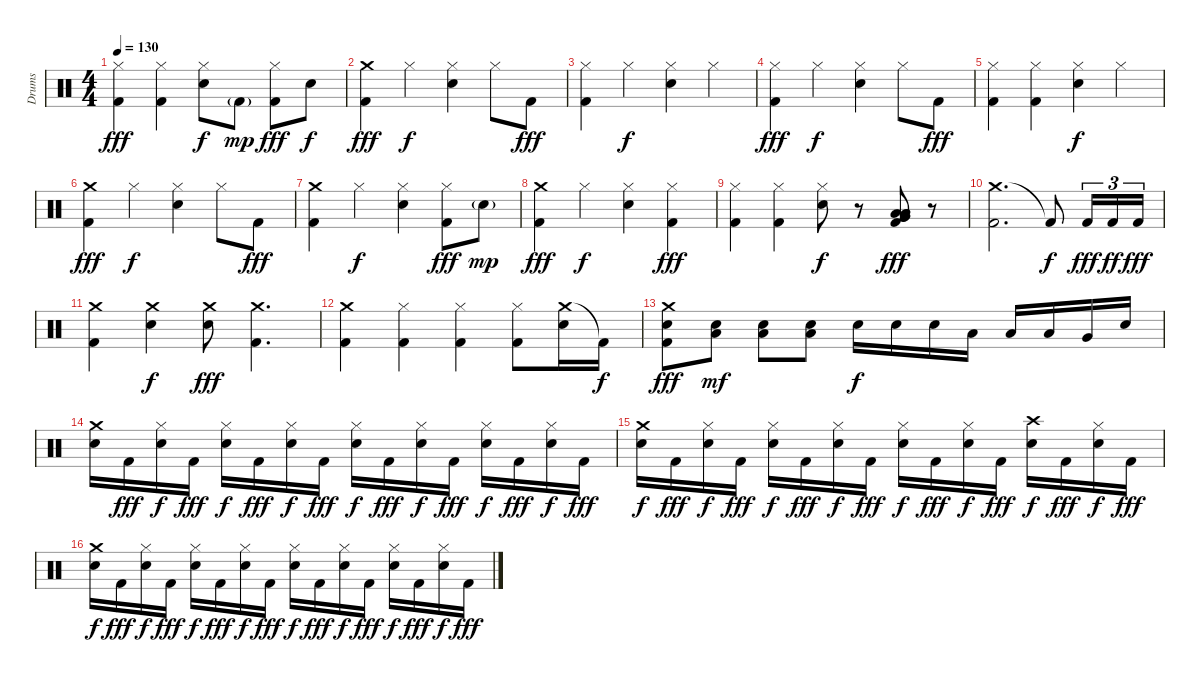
\track ("Drums" "Drums") {instrument percussion}
\staff {score}
\articulation defaults
\ts (4 4)
\tempo 130
\clef neutral
\ks c
("Hi-Hat (closed)" "Kick (hit) 2").4{dy fff} ("Hi-Hat (closed)" "Kick (hit) 2").4 ("Hi-Hat (closed)" "Electric Snare (hit)").8{dy f} "Kick (hit) 2"{g}.8{dy mp} ("Hi-Hat (closed)" "Kick (hit) 2").8{dy fff} "Electric Snare (hit)".8{dy f} |
("Crash medium (hit)" "Kick (hit) 2").4{dy fff} "Hi-Hat (closed)".4{dy f} ("Hi-Hat (closed)" "Electric Snare (hit)").4 "Hi-Hat (closed)".8 "Kick (hit) 2".8{dy fff} |
("Hi-Hat (closed)" "Kick (hit) 2").4 "Hi-Hat (closed)".4{dy f} ("Hi-Hat (closed)" "Electric Snare (hit)").4 "Hi-Hat (closed)".4 |
("Hi-Hat (closed)" "Kick (hit) 2").4{dy fff} "Hi-Hat (closed)".4{dy f} ("Hi-Hat (closed)" "Electric Snare (hit)").4 "Hi-Hat (closed)".8 "Kick (hit) 2".8{dy fff} |
("Hi-Hat (closed)" "Kick (hit) 2").4 ("Hi-Hat (closed)" "Kick (hit) 2").4 ("Hi-Hat (closed)" "Electric Snare (hit)").4{dy f} "Hi-Hat (closed)".4 |
("Crash medium (hit)" "Kick (hit) 2").4{dy fff} "Hi-Hat (closed)".4{dy f} ("Hi-Hat (closed)" "Electric Snare (hit)").4 "Hi-Hat (closed)".8 "Kick (hit) 2".8{dy fff} |
("Crash medium (hit)" "Kick (hit) 2").4 "Hi-Hat (closed)".4{dy f} ("Hi-Hat (closed)" "Electric Snare (hit)").4 ("Hi-Hat (closed)" "Kick (hit) 2").8{dy fff} "Electric Snare (hit)"{g}.8{dy mp} |
("Crash medium (hit)" "Kick (hit) 2").4{dy fff} "Hi-Hat (closed)".4{dy f} ("Hi-Hat (closed)" "Electric Snare (hit)").4 ("Hi-Hat (closed)" "Kick (hit) 2").4{dy fff} |
("Hi-Hat (closed)" "Kick (hit) 2").4 ("Hi-Hat (closed)" "Kick (hit) 2").4 ("Hi-Hat (closed)" "Electric Snare (hit)").8{dy f} r.8 ("Very Low Tom (hit)" "Low Tom (hit)" "Low Tom (hit)" "Low Tom (hit)" "Very Low Tom (hit)" "Kick (hit) 2").8{dy fff} r.8 |
("Crash medium (hit)" "Kick (hit) 2").2{d} "Kick (hit) 2"{t}.8{dy f} "Kick (hit) 2".16{tu (3 2) dy fff} "Kick (hit) 2".16{tu (3 2) dy ff} "Kick (hit) 2".16{tu (3 2) dy fff} |
("Crash medium (hit)" "Kick (hit) 2").4 ("Crash medium (hit)" "Electric Snare (hit)").4{dy f} ("Crash medium (hit)" "Electric Snare (hit)").8{dy fff} ("Crash medium (hit)" "Kick (hit) 2").4{d} |
("Crash medium (hit)" "Kick (hit) 2").4 ("Hi-Hat (closed)" "Kick (hit) 2").4 ("Hi-Hat (closed)" "Kick (hit) 2").4 ("Hi-Hat (closed)" "Kick (hit) 2").8 ("Crash medium (hit)" "Electric Snare (hit)").16 "Kick (hit) 2"{t}.16{dy f} |
("Crash medium (hit)" "Electric Snare (hit)" "Kick (hit) 2").8{dy fff} ("Low Tom (hit)" "Electric Snare (hit)").8{dy mf} ("Low Tom (hit)" "Electric Snare (hit)").8 ("Low Tom (hit)" "Electric Snare (hit)").8 "Electric Snare (hit)".16{dy f} "Electric Snare (hit)".16 "Electric Snare (hit)".16 "Low Tom (hit)".16 "Low Tom (hit)".16 "Low Tom (hit)".16 "Very Low Tom (hit)".16 "Electric Snare (hit)".16 |
("Crash medium (hit)" "Electric Snare (hit)").16 "Kick (hit) 2".16{dy fff} ("Hi-Hat (closed)" "Electric Snare (hit)").16{dy f} "Kick (hit) 2".16{dy fff} ("Hi-Hat (closed)" "Electric Snare (hit)").16{dy f} "Kick (hit) 2".16{dy fff} ("Hi-Hat (closed)" "Electric Snare (hit)").16{dy f} "Kick (hit) 2".16{dy fff} ("Hi-Hat (closed)" "Electric Snare (hit)").16{dy f} "Kick (hit) 2".16{dy fff} ("Hi-Hat (closed)" "Electric Snare (hit)").16{dy f} "Kick (hit) 2".16{dy fff} ("Hi-Hat (closed)" "Electric Snare (hit)").16{dy f} "Kick (hit) 2".16{dy fff} ("Hi-Hat (closed)" "Electric Snare (hit)").16{dy f} "Kick (hit) 2".16{dy fff} |
("Crash medium (hit)" "Electric Snare (hit)").16{dy f} "Kick (hit) 2".16{dy fff} ("Hi-Hat (closed)" "Electric Snare (hit)").16{dy f} "Kick (hit) 2".16{dy fff} ("Hi-Hat (closed)" "Electric Snare (hit)").16{dy f} "Kick (hit) 2".16{dy fff} ("Hi-Hat (closed)" "Electric Snare (hit)").16{dy f} "Kick (hit) 2".16{dy fff} ("Hi-Hat (closed)" "Electric Snare (hit)").16{dy f} "Kick (hit) 2".16{dy fff} ("Hi-Hat (closed)" "Electric Snare (hit)").16{dy f} "Kick (hit) 2".16{dy fff} ("Crash high (hit)" "Electric Snare (hit)").16{dy f} "Kick (hit) 2".16{dy fff} ("Hi-Hat (closed)" "Electric Snare (hit)").16{dy f} "Kick (hit) 2".16{dy fff} |
("Crash medium (hit)" "Electric Snare (hit)").16{dy f} "Kick (hit) 2".16{dy fff} ("Hi-Hat (closed)" "Electric Snare (hit)").16{dy f} "Kick (hit) 2".16{dy fff} ("Hi-Hat (closed)" "Electric Snare (hit)").16{dy f} "Kick (hit) 2".16{dy fff} ("Hi-Hat (closed)" "Electric Snare (hit)").16{dy f} "Kick (hit) 2".16{dy fff} ("Hi-Hat (closed)" "Electric Snare (hit)").16{dy f} "Kick (hit) 2".16{dy fff} ("Hi-Hat (closed)" "Electric Snare (hit)").16{dy f} "Kick (hit) 2".16{dy fff} ("Hi-Hat (closed)" "Electric Snare (hit)").16{dy f} "Kick (hit) 2".16{dy fff} ("Hi-Hat (closed)" "Electric Snare (hit)").16{dy f} "Kick (hit) 2".16{dy fff}
